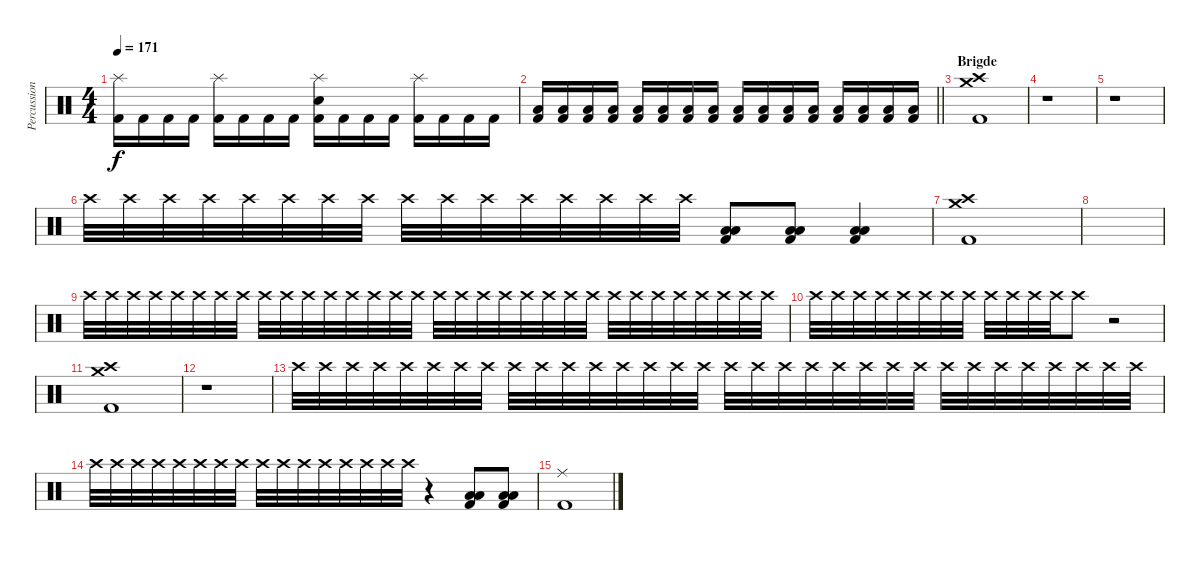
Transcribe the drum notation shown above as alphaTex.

\track ("Percussion" "Percussion") {instrument percussion}
\staff {score}
\articulation defaults
\ts (4 4)
\tempo 171
\clef neutral
\ks c
("Splash (hit)" "Kick (hit) 2").16{dy f} "Kick (hit) 2".16 "Kick (hit) 2".16 "Kick (hit) 2".16 ("Splash (hit)" "Kick (hit) 2").16 "Kick (hit) 2".16 "Kick (hit) 2".16 "Kick (hit) 2".16 ("Splash (hit)" "Snare (hit) 2" "Kick (hit) 2").16 "Kick (hit) 2".16 "Kick (hit) 2".16 "Kick (hit) 2".16 ("Splash (hit)" "Kick (hit) 2").16 "Kick (hit) 2".16 "Kick (hit) 2".16 "Kick (hit) 2".16 |
\barLineRight lightlight
("Low Tom (hit)" "Kick (hit) 2").16 ("Low Tom (hit)" "Kick (hit) 2").16 ("Low Tom (hit)" "Kick (hit) 2").16 ("Low Tom (hit)" "Kick (hit) 2").16 ("Low Tom (hit)" "Kick (hit) 2").16 ("Low Tom (hit)" "Kick (hit) 2").16 ("Low Tom (hit)" "Kick (hit) 2").16 ("Low Tom (hit)" "Kick (hit) 2").16 ("Low Tom (hit)" "Kick (hit) 2").16 ("Low Tom (hit)" "Kick (hit) 2").16 ("Low Tom (hit)" "Kick (hit) 2").16 ("Low Tom (hit)" "Kick (hit) 2").16 ("Low Tom (hit)" "Kick (hit) 2").16 ("Low Tom (hit)" "Kick (hit) 2").16 ("Low Tom (hit)" "Kick (hit) 2").16 ("Low Tom (hit)" "Kick (hit) 2").16 |
\section ("" "Brigde")
("Crash high (hit)" "Crash medium (hit)" "Kick (hit) 2").1 |
r.1 |
r.1{volume 4} |
"Crash high (hit)".32{volume 10} "Crash high (hit)".32 "Crash high (hit)".32 "Crash high (hit)".32 "Crash high (hit)".32 "Crash high (hit)".32 "Crash high (hit)".32 "Crash high (hit)".32 "Crash high (hit)".32 "Crash high (hit)".32 "Crash high (hit)".32 "Crash high (hit)".32 "Crash high (hit)".32 "Crash high (hit)".32 "Crash high (hit)".32 "Crash high (hit)".32 ("Low Floor Tom (hit)" "Low Floor Tom (hit)" "Kick (hit) 2").8{volume 16} ("Low Floor Tom (hit)" "Low Floor Tom (hit)" "Kick (hit) 2").8 ("Low Floor Tom (hit)" "Low Floor Tom (hit)" "Kick (hit) 2").4 |
("Crash high (hit)" "Crash medium (hit)" "Kick (hit) 2").1 |
|
"Crash high (hit)".32{volume 16} "Crash high (hit)".32 "Crash high (hit)".32 "Crash high (hit)".32 "Crash high (hit)".32 "Crash high (hit)".32 "Crash high (hit)".32 "Crash high (hit)".32 "Crash high (hit)".32 "Crash high (hit)".32 "Crash high (hit)".32 "Crash high (hit)".32 "Crash high (hit)".32 "Crash high (hit)".32 "Crash high (hit)".32 "Crash high (hit)".32 "Crash high (hit)".32 "Crash high (hit)".32 "Crash high (hit)".32 "Crash high (hit)".32 "Crash high (hit)".32 "Crash high (hit)".32 "Crash high (hit)".32 "Crash high (hit)".32 "Crash high (hit)".32 "Crash high (hit)".32 "Crash high (hit)".32 "Crash high (hit)".32 "Crash high (hit)".32 "Crash high (hit)".32 "Crash high (hit)".32 "Crash high (hit)".32 |
"Crash high (hit)".32 "Crash high (hit)".32 "Crash high (hit)".32 "Crash high (hit)".32 "Crash high (hit)".32 "Crash high (hit)".32 "Crash high (hit)".32 "Crash high (hit)".32 "Crash high (hit)".32 "Crash high (hit)".32 "Crash high (hit)".32 "Crash high (hit)".32 "Crash high (hit)".8 r.2 |
("Crash high (hit)" "Crash medium (hit)" "Kick (hit) 2").1 |
r.1{volume 4} |
"Crash high (hit)".32{volume 16} "Crash high (hit)".32 "Crash high (hit)".32 "Crash high (hit)".32 "Crash high (hit)".32 "Crash high (hit)".32 "Crash high (hit)".32 "Crash high (hit)".32 "Crash high (hit)".32 "Crash high (hit)".32 "Crash high (hit)".32 "Crash high (hit)".32 "Crash high (hit)".32 "Crash high (hit)".32 "Crash high (hit)".32 "Crash high (hit)".32 "Crash high (hit)".32 "Crash high (hit)".32 "Crash high (hit)".32 "Crash high (hit)".32 "Crash high (hit)".32 "Crash high (hit)".32 "Crash high (hit)".32 "Crash high (hit)".32 "Crash high (hit)".32 "Crash high (hit)".32 "Crash high (hit)".32 "Crash high (hit)".32 "Crash high (hit)".32 "Crash high (hit)".32 "Crash high (hit)".32 "Crash high (hit)".32 |
"Crash high (hit)".32 "Crash high (hit)".32 "Crash high (hit)".32 "Crash high (hit)".32 "Crash high (hit)".32 "Crash high (hit)".32 "Crash high (hit)".32 "Crash high (hit)".32 "Crash high (hit)".32 "Crash high (hit)".32 "Crash high (hit)".32 "Crash high (hit)".32 "Crash high (hit)".32 "Crash high (hit)".32 "Crash high (hit)".32 "Crash high (hit)".32 r.4 ("Low Floor Tom (hit)" "Low Floor Tom (hit)" "Kick (hit) 2").8 ("Low Floor Tom (hit)" "Low Floor Tom (hit)" "Kick (hit) 2").8 |
("Ride (middle)" "Kick (hit) 2").1
